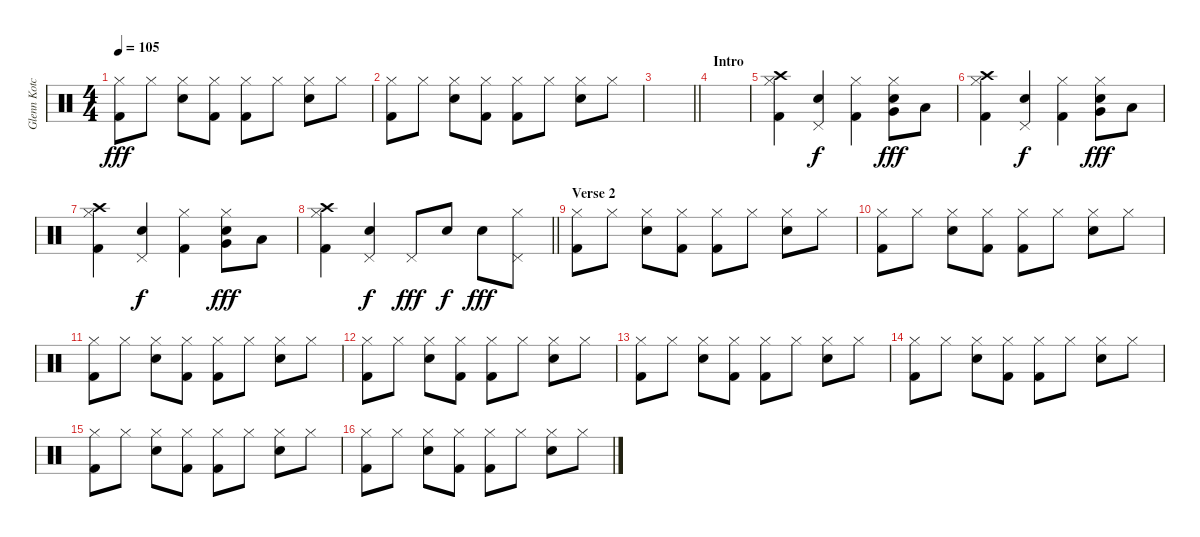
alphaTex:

\track ("Glenn Kotche" "Glenn Kotc") {mute instrument percussion}
\staff {score}
\articulation defaults
\ts (4 4)
\tempo 105
\clef neutral
\ks c
("Hi-Hat (closed)" "Kick (hit) 2").8{dy fff} "Hi-Hat (closed)".8 ("Hi-Hat (closed)" "Electric Snare (hit)").8 ("Hi-Hat (closed)" "Kick (hit) 2").8 ("Hi-Hat (closed)" "Kick (hit) 2").8 "Hi-Hat (closed)".8 ("Hi-Hat (closed)" "Electric Snare (hit)").8 "Hi-Hat (closed)".8 |
("Hi-Hat (closed)" "Kick (hit) 2").8 "Hi-Hat (closed)".8 ("Hi-Hat (closed)" "Electric Snare (hit)").8 ("Hi-Hat (closed)" "Kick (hit) 2").8 ("Hi-Hat (closed)" "Kick (hit) 2").8 "Hi-Hat (closed)".8 ("Hi-Hat (closed)" "Electric Snare (hit)").8 "Hi-Hat (closed)".8 |
\barLineRight lightlight
|
\section ("" "Intro")
|
("Hi-Hat (closed)" "Kick (hit) 2" "Crash high (hit)").4 ("Pedal Hi-Hat (hit)" "Electric Snare (hit)").4{dy f} ("Hi-Hat (closed)" "Kick (hit) 2").4 ("Hi-Hat (closed)" "Electric Snare (hit)" "Very Low Tom (hit)").8{dy fff} "Low Floor Tom (hit)".8 |
("Hi-Hat (closed)" "Kick (hit) 2" "Crash high (hit)").4 ("Pedal Hi-Hat (hit)" "Electric Snare (hit)").4{dy f} ("Hi-Hat (closed)" "Kick (hit) 2").4 ("Hi-Hat (closed)" "Electric Snare (hit)" "Very Low Tom (hit)").8{dy fff} "Low Floor Tom (hit)".8 |
("Hi-Hat (closed)" "Kick (hit) 2" "Crash high (hit)").4 ("Pedal Hi-Hat (hit)" "Electric Snare (hit)").4{dy f} ("Hi-Hat (closed)" "Kick (hit) 2").4 ("Hi-Hat (closed)" "Electric Snare (hit)" "Very Low Tom (hit)").8{dy fff} "Low Floor Tom (hit)".8 |
\barLineRight lightlight
("Hi-Hat (closed)" "Kick (hit) 2" "Crash high (hit)").4 ("Pedal Hi-Hat (hit)" "Electric Snare (hit)").4{dy f} "Pedal Hi-Hat (hit)".8{dy fff} "Electric Snare (hit)".8{dy f} "Electric Snare (hit)".8{dy fff} ("Pedal Hi-Hat (hit)" "Hi-Hat (closed)").8 |
\section ("" "Verse 2")
("Hi-Hat (closed)" "Kick (hit) 2").8 "Hi-Hat (closed)".8 ("Hi-Hat (closed)" "Electric Snare (hit)").8 ("Hi-Hat (closed)" "Kick (hit) 2").8 ("Hi-Hat (closed)" "Kick (hit) 2").8 "Hi-Hat (closed)".8 ("Hi-Hat (closed)" "Electric Snare (hit)").8 "Hi-Hat (closed)".8 |
("Hi-Hat (closed)" "Kick (hit) 2").8 "Hi-Hat (closed)".8 ("Hi-Hat (closed)" "Electric Snare (hit)").8 ("Hi-Hat (closed)" "Kick (hit) 2").8 ("Hi-Hat (closed)" "Kick (hit) 2").8 "Hi-Hat (closed)".8 ("Hi-Hat (closed)" "Electric Snare (hit)").8 "Hi-Hat (closed)".8 |
("Hi-Hat (closed)" "Kick (hit) 2").8 "Hi-Hat (closed)".8 ("Hi-Hat (closed)" "Electric Snare (hit)").8 ("Hi-Hat (closed)" "Kick (hit) 2").8 ("Hi-Hat (closed)" "Kick (hit) 2").8 "Hi-Hat (closed)".8 ("Hi-Hat (closed)" "Electric Snare (hit)").8 "Hi-Hat (closed)".8 |
("Hi-Hat (closed)" "Kick (hit) 2").8 "Hi-Hat (closed)".8 ("Hi-Hat (closed)" "Electric Snare (hit)").8 ("Hi-Hat (closed)" "Kick (hit) 2").8 ("Hi-Hat (closed)" "Kick (hit) 2").8 "Hi-Hat (closed)".8 ("Hi-Hat (closed)" "Electric Snare (hit)").8 "Hi-Hat (closed)".8 |
("Hi-Hat (closed)" "Kick (hit) 2").8 "Hi-Hat (closed)".8 ("Hi-Hat (closed)" "Electric Snare (hit)").8 ("Hi-Hat (closed)" "Kick (hit) 2").8 ("Hi-Hat (closed)" "Kick (hit) 2").8 "Hi-Hat (closed)".8 ("Hi-Hat (closed)" "Electric Snare (hit)").8 "Hi-Hat (closed)".8 |
("Hi-Hat (closed)" "Kick (hit) 2").8 "Hi-Hat (closed)".8 ("Hi-Hat (closed)" "Electric Snare (hit)").8 ("Hi-Hat (closed)" "Kick (hit) 2").8 ("Hi-Hat (closed)" "Kick (hit) 2").8 "Hi-Hat (closed)".8 ("Hi-Hat (closed)" "Electric Snare (hit)").8 "Hi-Hat (closed)".8 |
("Hi-Hat (closed)" "Kick (hit) 2").8 "Hi-Hat (closed)".8 ("Hi-Hat (closed)" "Electric Snare (hit)").8 ("Hi-Hat (closed)" "Kick (hit) 2").8 ("Hi-Hat (closed)" "Kick (hit) 2").8 "Hi-Hat (closed)".8 ("Hi-Hat (closed)" "Electric Snare (hit)").8 "Hi-Hat (closed)".8 |
("Hi-Hat (closed)" "Kick (hit) 2").8 "Hi-Hat (closed)".8 ("Hi-Hat (closed)" "Electric Snare (hit)").8 ("Hi-Hat (closed)" "Kick (hit) 2").8 ("Hi-Hat (closed)" "Kick (hit) 2").8 "Hi-Hat (closed)".8 ("Hi-Hat (closed)" "Electric Snare (hit)").8 "Hi-Hat (closed)".8
